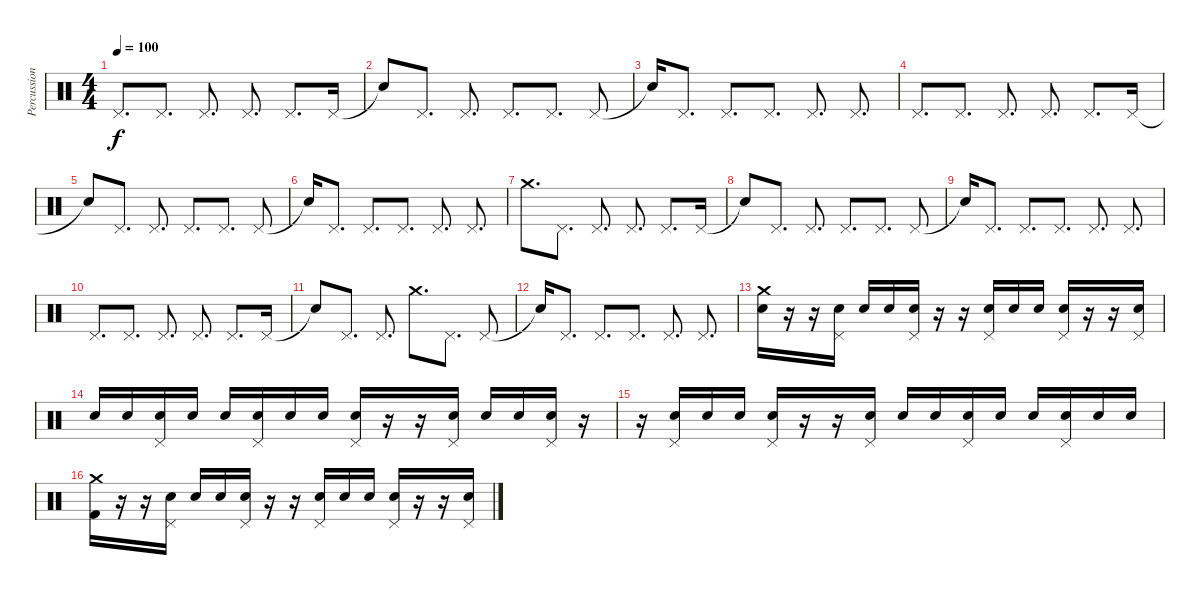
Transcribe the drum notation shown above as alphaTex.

\track ("Percussion" "Percussion") {instrument percussion}
\staff {score}
\articulation defaults
\ts (4 4)
\tempo 100
\clef neutral
\ks c "Pedal Hi-Hat (hit)".8{d dy f} "Pedal Hi-Hat (hit)".8{d} "Pedal Hi-Hat (hit)".8{d} "Pedal Hi-Hat (hit)".8{d} "Pedal Hi-Hat (hit)".8{d} "Pedal Hi-Hat (hit)".16
|
"Snare (hit)"{t}.8 "Pedal Hi-Hat (hit)".8{d} "Pedal Hi-Hat (hit)".8{d} "Pedal Hi-Hat (hit)".8{d} "Pedal Hi-Hat (hit)".8{d} "Pedal Hi-Hat (hit)".8 |
"Snare (hit)"{t}.16 "Pedal Hi-Hat (hit)".8{d} "Pedal Hi-Hat (hit)".8{d} "Pedal Hi-Hat (hit)".8{d} "Pedal Hi-Hat (hit)".8{d} "Pedal Hi-Hat (hit)".8{d} |
"Pedal Hi-Hat (hit)".8{d} "Pedal Hi-Hat (hit)".8{d} "Pedal Hi-Hat (hit)".8{d} "Pedal Hi-Hat (hit)".8{d} "Pedal Hi-Hat (hit)".8{d} "Pedal Hi-Hat (hit)".16 |
"Snare (hit)"{t}.8 "Pedal Hi-Hat (hit)".8{d} "Pedal Hi-Hat (hit)".8{d} "Pedal Hi-Hat (hit)".8{d} "Pedal Hi-Hat (hit)".8{d} "Pedal Hi-Hat (hit)".8 |
"Snare (hit)"{t}.16 "Pedal Hi-Hat (hit)".8{d} "Pedal Hi-Hat (hit)".8{d} "Pedal Hi-Hat (hit)".8{d} "Pedal Hi-Hat (hit)".8{d} "Pedal Hi-Hat (hit)".8{d} |
"Crash medium (hit)".8{d} "Pedal Hi-Hat (hit)".8{d} "Pedal Hi-Hat (hit)".8{d} "Pedal Hi-Hat (hit)".8{d} "Pedal Hi-Hat (hit)".8{d} "Pedal Hi-Hat (hit)".16 |
"Snare (hit)"{t}.8 "Pedal Hi-Hat (hit)".8{d} "Pedal Hi-Hat (hit)".8{d} "Pedal Hi-Hat (hit)".8{d} "Pedal Hi-Hat (hit)".8{d} "Pedal Hi-Hat (hit)".8 |
"Snare (hit)"{t}.16 "Pedal Hi-Hat (hit)".8{d} "Pedal Hi-Hat (hit)".8{d} "Pedal Hi-Hat (hit)".8{d} "Pedal Hi-Hat (hit)".8{d} "Pedal Hi-Hat (hit)".8{d} |
"Pedal Hi-Hat (hit)".8{d} "Pedal Hi-Hat (hit)".8{d} "Pedal Hi-Hat (hit)".8{d} "Pedal Hi-Hat (hit)".8{d} "Pedal Hi-Hat (hit)".8{d} "Pedal Hi-Hat (hit)".16 |
"Snare (hit)"{t}.8 "Pedal Hi-Hat (hit)".8{d} "Pedal Hi-Hat (hit)".8{d} "Crash medium (hit)".8{d} "Pedal Hi-Hat (hit)".8{d} "Pedal Hi-Hat (hit)".8 |
"Snare (hit)"{t}.16 "Pedal Hi-Hat (hit)".8{d} "Pedal Hi-Hat (hit)".8{d} "Pedal Hi-Hat (hit)".8{d} "Pedal Hi-Hat (hit)".8{d} "Pedal Hi-Hat (hit)".8{d} |
("Crash medium (hit)" "Snare (hit) 2").16 r.16 r.16 ("Pedal Hi-Hat (hit)" "Snare (hit) 2").16 "Snare (hit) 2".16 "Snare (hit) 2".16 ("Pedal Hi-Hat (hit)" "Snare (hit) 2").16 r.16 r.16 ("Pedal Hi-Hat (hit)" "Snare (hit) 2").16 "Snare (hit) 2".16 "Snare (hit) 2".16 ("Pedal Hi-Hat (hit)" "Snare (hit) 2").16 r.16 r.16 ("Pedal Hi-Hat (hit)" "Snare (hit) 2").16 |
"Snare (hit) 2".16 "Snare (hit) 2".16 ("Pedal Hi-Hat (hit)" "Snare (hit) 2").16 "Snare (hit) 2".16 "Snare (hit) 2".16 ("Pedal Hi-Hat (hit)" "Snare (hit) 2").16 "Snare (hit) 2".16 "Snare (hit) 2".16 ("Pedal Hi-Hat (hit)" "Snare (hit) 2").16 r.16 r.16 ("Pedal Hi-Hat (hit)" "Snare (hit) 2").16 "Snare (hit) 2".16 "Snare (hit) 2".16 ("Pedal Hi-Hat (hit)" "Snare (hit) 2").16 r.16 |
r.16 ("Pedal Hi-Hat (hit)" "Snare (hit) 2").16 "Snare (hit) 2".16 "Snare (hit) 2".16 ("Pedal Hi-Hat (hit)" "Snare (hit) 2").16 r.16 r.16 ("Pedal Hi-Hat (hit)" "Snare (hit) 2").16 "Snare (hit) 2".16 "Snare (hit) 2".16 ("Pedal Hi-Hat (hit)" "Snare (hit) 2").16 "Snare (hit) 2".16 "Snare (hit) 2".16 ("Pedal Hi-Hat (hit)" "Snare (hit) 2").16 "Snare (hit) 2".16 "Snare (hit) 2".16 |
("Crash medium (hit)" "Kick (hit) 2").16 r.16 r.16 ("Pedal Hi-Hat (hit)" "Snare (hit) 2").16 "Snare (hit) 2".16 "Snare (hit) 2".16 ("Pedal Hi-Hat (hit)" "Snare (hit) 2").16 r.16 r.16 ("Pedal Hi-Hat (hit)" "Snare (hit) 2").16 "Snare (hit) 2".16 "Snare (hit) 2".16 ("Pedal Hi-Hat (hit)" "Snare (hit) 2").16 r.16 r.16 ("Pedal Hi-Hat (hit)" "Snare (hit) 2").16
